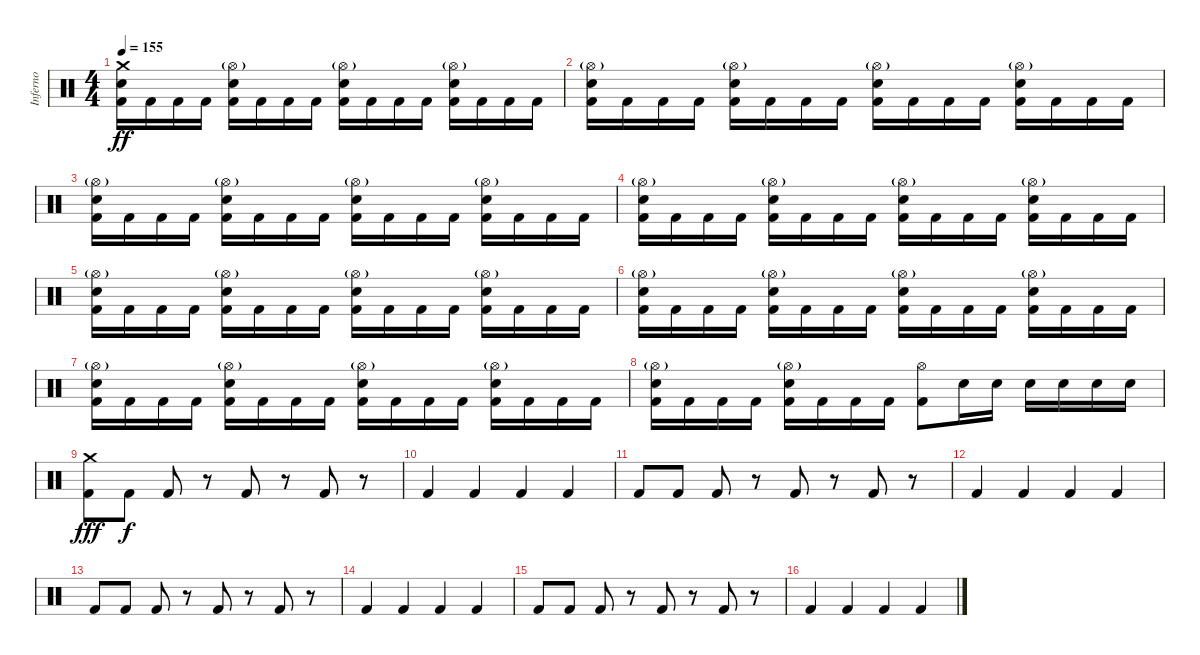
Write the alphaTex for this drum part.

\track ("Inferno" "Inferno") {instrument percussion}
\staff {score}
\articulation defaults
\ts (4 4)
\tempo 155
\clef neutral
\ks c
("Crash medium (hit)" "Snare (hit) 2" "Kick (hit) 2").16{dy ff} "Kick (hit) 2".16 "Kick (hit) 2".16 "Kick (hit) 2".16 ("Hi-Hat (open)"{g} "Snare (hit) 2" "Kick (hit) 2").16 "Kick (hit) 2".16 "Kick (hit) 2".16 "Kick (hit) 2".16 ("Hi-Hat (open)"{g} "Snare (hit) 2" "Kick (hit) 2").16 "Kick (hit) 2".16 "Kick (hit) 2".16 "Kick (hit) 2".16 ("Hi-Hat (open)"{g} "Snare (hit) 2" "Kick (hit) 2").16 "Kick (hit) 2".16 "Kick (hit) 2".16 "Kick (hit) 2".16 |
("Hi-Hat (open)"{g} "Snare (hit) 2" "Kick (hit) 2").16 "Kick (hit) 2".16 "Kick (hit) 2".16 "Kick (hit) 2".16 ("Hi-Hat (open)"{g} "Snare (hit) 2" "Kick (hit) 2").16 "Kick (hit) 2".16 "Kick (hit) 2".16 "Kick (hit) 2".16 ("Hi-Hat (open)"{g} "Snare (hit) 2" "Kick (hit) 2").16 "Kick (hit) 2".16 "Kick (hit) 2".16 "Kick (hit) 2".16 ("Hi-Hat (open)"{g} "Snare (hit) 2" "Kick (hit) 2").16 "Kick (hit) 2".16 "Kick (hit) 2".16 "Kick (hit) 2".16 |
("Hi-Hat (open)"{g} "Snare (hit) 2" "Kick (hit) 2").16 "Kick (hit) 2".16 "Kick (hit) 2".16 "Kick (hit) 2".16 ("Hi-Hat (open)"{g} "Snare (hit) 2" "Kick (hit) 2").16 "Kick (hit) 2".16 "Kick (hit) 2".16 "Kick (hit) 2".16 ("Hi-Hat (open)"{g} "Snare (hit) 2" "Kick (hit) 2").16 "Kick (hit) 2".16 "Kick (hit) 2".16 "Kick (hit) 2".16 ("Hi-Hat (open)"{g} "Snare (hit) 2" "Kick (hit) 2").16 "Kick (hit) 2".16 "Kick (hit) 2".16 "Kick (hit) 2".16 |
("Hi-Hat (open)"{g} "Snare (hit) 2" "Kick (hit) 2").16 "Kick (hit) 2".16 "Kick (hit) 2".16 "Kick (hit) 2".16 ("Hi-Hat (open)"{g} "Snare (hit) 2" "Kick (hit) 2").16 "Kick (hit) 2".16 "Kick (hit) 2".16 "Kick (hit) 2".16 ("Hi-Hat (open)"{g} "Snare (hit) 2" "Kick (hit) 2").16 "Kick (hit) 2".16 "Kick (hit) 2".16 "Kick (hit) 2".16 ("Hi-Hat (open)"{g} "Snare (hit) 2" "Kick (hit) 2").16 "Kick (hit) 2".16 "Kick (hit) 2".16 "Kick (hit) 2".16 |
("Hi-Hat (open)"{g} "Snare (hit) 2" "Kick (hit) 2").16 "Kick (hit) 2".16 "Kick (hit) 2".16 "Kick (hit) 2".16 ("Hi-Hat (open)"{g} "Snare (hit) 2" "Kick (hit) 2").16 "Kick (hit) 2".16 "Kick (hit) 2".16 "Kick (hit) 2".16 ("Hi-Hat (open)"{g} "Snare (hit) 2" "Kick (hit) 2").16 "Kick (hit) 2".16 "Kick (hit) 2".16 "Kick (hit) 2".16 ("Hi-Hat (open)"{g} "Snare (hit) 2" "Kick (hit) 2").16 "Kick (hit) 2".16 "Kick (hit) 2".16 "Kick (hit) 2".16 |
("Hi-Hat (open)"{g} "Snare (hit) 2" "Kick (hit) 2").16 "Kick (hit) 2".16 "Kick (hit) 2".16 "Kick (hit) 2".16 ("Hi-Hat (open)"{g} "Snare (hit) 2" "Kick (hit) 2").16 "Kick (hit) 2".16 "Kick (hit) 2".16 "Kick (hit) 2".16 ("Hi-Hat (open)"{g} "Snare (hit) 2" "Kick (hit) 2").16 "Kick (hit) 2".16 "Kick (hit) 2".16 "Kick (hit) 2".16 ("Hi-Hat (open)"{g} "Snare (hit) 2" "Kick (hit) 2").16 "Kick (hit) 2".16 "Kick (hit) 2".16 "Kick (hit) 2".16 |
("Hi-Hat (open)"{g} "Snare (hit) 2" "Kick (hit) 2").16 "Kick (hit) 2".16 "Kick (hit) 2".16 "Kick (hit) 2".16 ("Hi-Hat (open)"{g} "Snare (hit) 2" "Kick (hit) 2").16 "Kick (hit) 2".16 "Kick (hit) 2".16 "Kick (hit) 2".16 ("Hi-Hat (open)"{g} "Snare (hit) 2" "Kick (hit) 2").16 "Kick (hit) 2".16 "Kick (hit) 2".16 "Kick (hit) 2".16 ("Hi-Hat (open)"{g} "Snare (hit) 2" "Kick (hit) 2").16 "Kick (hit) 2".16 "Kick (hit) 2".16 "Kick (hit) 2".16 |
("Hi-Hat (open)"{g} "Snare (hit) 2" "Kick (hit) 2").16 "Kick (hit) 2".16 "Kick (hit) 2".16 "Kick (hit) 2".16 ("Hi-Hat (open)"{g} "Snare (hit) 2" "Kick (hit) 2").16 "Kick (hit) 2".16 "Kick (hit) 2".16 "Kick (hit) 2".16 ("Hi-Hat (open)" "Kick (hit) 2").8 "Snare (hit) 2".16 "Snare (hit) 2".16 "Snare (hit) 2".16 "Snare (hit) 2".16 "Snare (hit) 2".16 "Snare (hit) 2".16 |
("Crash medium (hit)" "Kick (hit) 2").8{dy fff} "Kick (hit) 2".8{dy f} "Kick (hit) 2".8 r.8 "Kick (hit) 2".8 r.8 "Kick (hit) 2".8 r.8 |
"Kick (hit) 2".4 "Kick (hit) 2".4 "Kick (hit) 2".4 "Kick (hit) 2".4 |
"Kick (hit) 2".8 "Kick (hit) 2".8 "Kick (hit) 2".8 r.8 "Kick (hit) 2".8 r.8 "Kick (hit) 2".8 r.8 |
"Kick (hit) 2".4 "Kick (hit) 2".4 "Kick (hit) 2".4 "Kick (hit) 2".4 |
"Kick (hit) 2".8 "Kick (hit) 2".8 "Kick (hit) 2".8 r.8 "Kick (hit) 2".8 r.8 "Kick (hit) 2".8 r.8 |
"Kick (hit) 2".4 "Kick (hit) 2".4 "Kick (hit) 2".4 "Kick (hit) 2".4 |
"Kick (hit) 2".8 "Kick (hit) 2".8 "Kick (hit) 2".8 r.8 "Kick (hit) 2".8 r.8 "Kick (hit) 2".8 r.8 |
"Kick (hit) 2".4 "Kick (hit) 2".4 "Kick (hit) 2".4 "Kick (hit) 2".4
